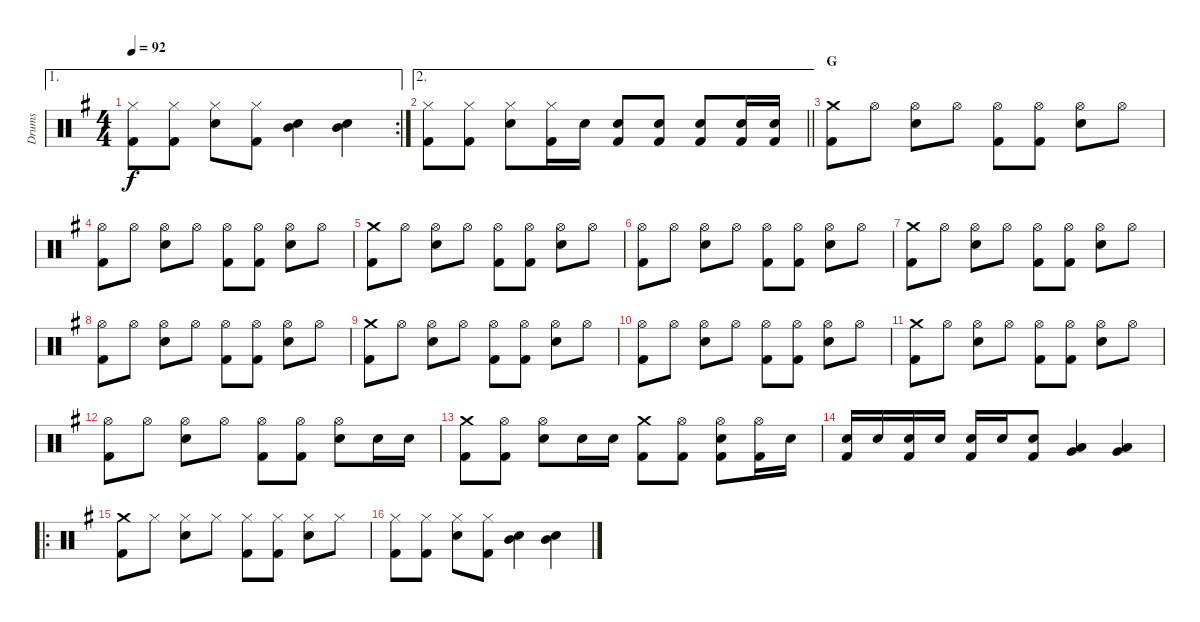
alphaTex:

\track ("Drums" "Drums") {instrument percussion}
\staff {score}
\articulation defaults
\ae 1
\rc 2
\ts (4 4)
\tempo 92
\clef neutral
\ks g
("Hi-Hat (closed)" "Kick (hit) 2").8{dy f} ("Hi-Hat (closed)" "Kick (hit) 2").8 ("Hi-Hat (closed)" "Snare (hit) 2").8 ("Hi-Hat (closed)" "Kick (hit) 2").8 ("Mid Tom (hit)" "Snare (hit) 2").4 ("Mid Tom (hit)" "Snare (hit) 2").4 |
\ae 2
\barLineRight lightlight
("Hi-Hat (closed)" "Kick (hit) 2").8 ("Hi-Hat (closed)" "Kick (hit) 2").8 ("Hi-Hat (closed)" "Snare (hit) 2").8 ("Hi-Hat (closed)" "Kick (hit) 2").16 "Snare (hit) 2".16 ("Snare (hit) 2" "Kick (hit) 2").8 ("Snare (hit) 2" "Kick (hit) 2").8 ("Snare (hit) 2" "Kick (hit) 2").8 ("Snare (hit) 2" "Kick (hit) 2").16 ("Kick (hit) 2" "Snare (hit) 2").16 |
\section ("" "G")
("Crash medium (hit)" "Kick (hit) 2").8 "Hi-Hat (open)".8 ("Hi-Hat (open)" "Snare (hit) 2").8 "Hi-Hat (open)".8 ("Hi-Hat (open)" "Kick (hit) 2").8 ("Hi-Hat (open)" "Kick (hit) 2").8 ("Hi-Hat (open)" "Snare (hit) 2").8 "Hi-Hat (open)".8 |
("Hi-Hat (open)" "Kick (hit) 2").8 "Hi-Hat (open)".8 ("Hi-Hat (open)" "Snare (hit) 2").8 "Hi-Hat (open)".8 ("Hi-Hat (open)" "Kick (hit) 2").8 ("Hi-Hat (open)" "Kick (hit) 2").8 ("Hi-Hat (open)" "Snare (hit) 2").8 "Hi-Hat (open)".8 |
("Crash medium (hit)" "Kick (hit) 2").8 "Hi-Hat (open)".8 ("Hi-Hat (open)" "Snare (hit) 2").8 "Hi-Hat (open)".8 ("Hi-Hat (open)" "Kick (hit) 2").8 ("Hi-Hat (open)" "Kick (hit) 2").8 ("Hi-Hat (open)" "Snare (hit) 2").8 "Hi-Hat (open)".8 |
("Hi-Hat (open)" "Kick (hit) 2").8 "Hi-Hat (open)".8 ("Hi-Hat (open)" "Snare (hit) 2").8 "Hi-Hat (open)".8 ("Hi-Hat (open)" "Kick (hit) 2").8 ("Hi-Hat (open)" "Kick (hit) 2").8 ("Hi-Hat (open)" "Snare (hit) 2").8 "Hi-Hat (open)".8 |
("Crash medium (hit)" "Kick (hit) 2").8 "Hi-Hat (open)".8 ("Hi-Hat (open)" "Snare (hit) 2").8 "Hi-Hat (open)".8 ("Hi-Hat (open)" "Kick (hit) 2").8 ("Hi-Hat (open)" "Kick (hit) 2").8 ("Hi-Hat (open)" "Snare (hit) 2").8 "Hi-Hat (open)".8 |
("Hi-Hat (open)" "Kick (hit) 2").8 "Hi-Hat (open)".8 ("Hi-Hat (open)" "Snare (hit) 2").8 "Hi-Hat (open)".8 ("Hi-Hat (open)" "Kick (hit) 2").8 ("Hi-Hat (open)" "Kick (hit) 2").8 ("Hi-Hat (open)" "Snare (hit) 2").8 "Hi-Hat (open)".8 |
("Crash medium (hit)" "Kick (hit) 2").8 "Hi-Hat (open)".8 ("Hi-Hat (open)" "Snare (hit) 2").8 "Hi-Hat (open)".8 ("Hi-Hat (open)" "Kick (hit) 2").8 ("Hi-Hat (open)" "Kick (hit) 2").8 ("Hi-Hat (open)" "Snare (hit) 2").8 "Hi-Hat (open)".8 |
("Hi-Hat (open)" "Kick (hit) 2").8 "Hi-Hat (open)".8 ("Hi-Hat (open)" "Snare (hit) 2").8 "Hi-Hat (open)".8 ("Hi-Hat (open)" "Kick (hit) 2").8 ("Hi-Hat (open)" "Kick (hit) 2").8 ("Hi-Hat (open)" "Snare (hit) 2").8 "Hi-Hat (open)".8 |
("Crash medium (hit)" "Kick (hit) 2").8 "Hi-Hat (open)".8 ("Hi-Hat (open)" "Snare (hit) 2").8 "Hi-Hat (open)".8 ("Hi-Hat (open)" "Kick (hit) 2").8 ("Hi-Hat (open)" "Kick (hit) 2").8 ("Hi-Hat (open)" "Snare (hit) 2").8 "Hi-Hat (open)".8 |
("Hi-Hat (open)" "Kick (hit) 2").8 "Hi-Hat (open)".8 ("Hi-Hat (open)" "Snare (hit) 2").8 "Hi-Hat (open)".8 ("Hi-Hat (open)" "Kick (hit) 2").8 ("Hi-Hat (open)" "Kick (hit) 2").8 ("Hi-Hat (open)" "Snare (hit) 2").8 "Snare (hit) 2".16 "Snare (hit) 2".16 |
("Crash medium (hit)" "Kick (hit) 2").8 ("Hi-Hat (open)" "Kick (hit) 2").8 ("Hi-Hat (open)" "Snare (hit) 2").8 "Snare (hit) 2".16 "Snare (hit) 2".16 ("Crash medium (hit)" "Kick (hit) 2").8 ("Hi-Hat (open)" "Kick (hit) 2").8 ("Hi-Hat (open)" "Snare (hit) 2" "Kick (hit) 2").8 ("Hi-Hat (open)" "Kick (hit) 2").16 "Snare (hit) 2".16 |
("Snare (hit) 2" "Kick (hit) 2").16 "Snare (hit) 2".16 ("Snare (hit) 2" "Kick (hit) 2").16 "Snare (hit) 2".16 ("Snare (hit) 2" "Kick (hit) 2").16 "Snare (hit) 2".16 ("Snare (hit) 2" "Kick (hit) 2").8 ("Low Tom (hit)" "Very Low Tom (hit)").4 ("Low Tom (hit)" "Very Low Tom (hit)").4 |
\ro
("Crash medium (hit)" "Kick (hit) 2").8 "Hi-Hat (closed)".8 ("Hi-Hat (closed)" "Snare (hit) 2").8 "Hi-Hat (closed)".8 ("Hi-Hat (closed)" "Kick (hit) 2").8 ("Hi-Hat (closed)" "Kick (hit) 2").8 ("Hi-Hat (closed)" "Snare (hit) 2").8 "Hi-Hat (closed)".8 |
("Hi-Hat (closed)" "Kick (hit) 2").8 ("Hi-Hat (closed)" "Kick (hit) 2").8 ("Hi-Hat (closed)" "Snare (hit) 2").8 ("Hi-Hat (closed)" "Kick (hit) 2").8 ("Mid Tom (hit)" "Snare (hit) 2").4 ("Mid Tom (hit)" "Snare (hit) 2").4
